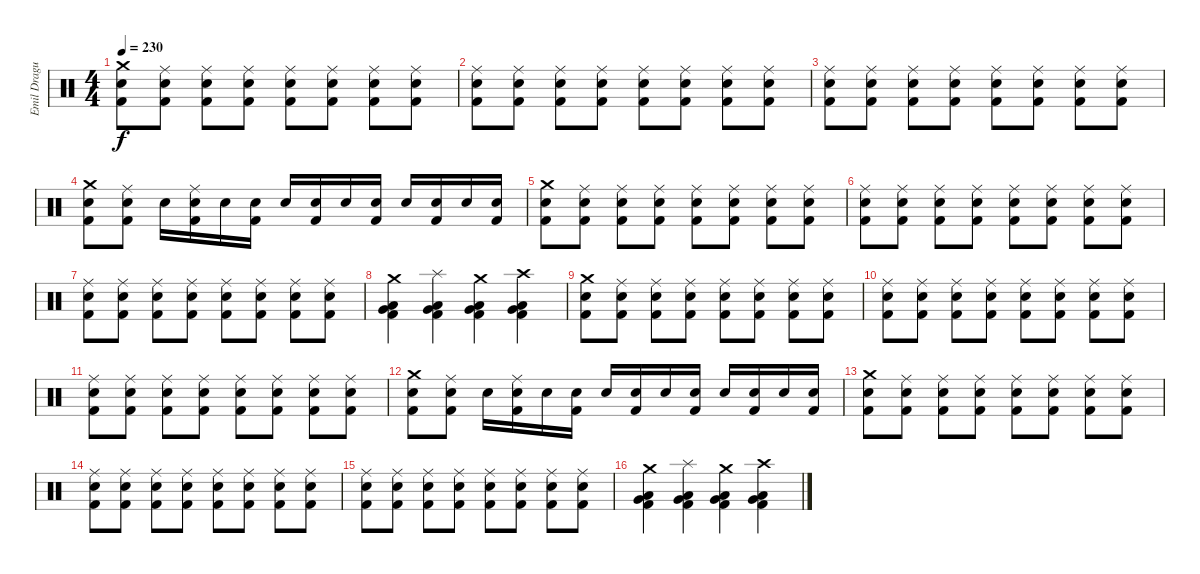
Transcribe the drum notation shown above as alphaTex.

\track ("Emil Dragutinovic" "Emil Dragu") {instrument percussion}
\staff {score}
\articulation defaults
\ts (4 4)
\tempo 230
\clef neutral
\ks c
("Crash medium (hit)" "Electric Snare (hit)" "Kick (hit) 2").8{dy f} ("Ride (middle)" "Electric Snare (hit)" "Kick (hit) 2").8 ("Ride (middle)" "Electric Snare (hit)" "Kick (hit) 2").8 ("Ride (middle)" "Electric Snare (hit)" "Kick (hit) 2").8 ("Ride (middle)" "Electric Snare (hit)" "Kick (hit) 2").8 ("Ride (middle)" "Electric Snare (hit)" "Kick (hit) 2").8 ("Ride (middle)" "Electric Snare (hit)" "Kick (hit) 2").8 ("Ride (middle)" "Electric Snare (hit)" "Kick (hit) 2").8 |
("Ride (middle)" "Electric Snare (hit)" "Kick (hit) 2").8 ("Ride (middle)" "Electric Snare (hit)" "Kick (hit) 2").8 ("Ride (middle)" "Electric Snare (hit)" "Kick (hit) 2").8 ("Ride (middle)" "Electric Snare (hit)" "Kick (hit) 2").8 ("Ride (middle)" "Electric Snare (hit)" "Kick (hit) 2").8 ("Ride (middle)" "Electric Snare (hit)" "Kick (hit) 2").8 ("Ride (middle)" "Electric Snare (hit)" "Kick (hit) 2").8 ("Ride (middle)" "Electric Snare (hit)" "Kick (hit) 2").8 |
("Ride (middle)" "Electric Snare (hit)" "Kick (hit) 2").8 ("Ride (middle)" "Electric Snare (hit)" "Kick (hit) 2").8 ("Ride (middle)" "Electric Snare (hit)" "Kick (hit) 2").8 ("Ride (middle)" "Electric Snare (hit)" "Kick (hit) 2").8 ("Ride (middle)" "Electric Snare (hit)" "Kick (hit) 2").8 ("Ride (middle)" "Electric Snare (hit)" "Kick (hit) 2").8 ("Ride (middle)" "Electric Snare (hit)" "Kick (hit) 2").8 ("Ride (middle)" "Electric Snare (hit)" "Kick (hit) 2").8 |
("Crash medium (hit)" "Electric Snare (hit)" "Kick (hit) 2").8 ("Ride (middle)" "Electric Snare (hit)" "Kick (hit) 2").8 "Electric Snare (hit)".16 ("Ride (middle)" "Electric Snare (hit)" "Kick (hit) 2").16 "Electric Snare (hit)".16 ("Electric Snare (hit)" "Kick (hit) 2").16 "Electric Snare (hit)".16 ("Electric Snare (hit)" "Kick (hit) 2").16 "Electric Snare (hit)".16 ("Electric Snare (hit)" "Kick (hit) 2").16 "Electric Snare (hit)".16 ("Electric Snare (hit)" "Kick (hit) 2").16 "Electric Snare (hit)".16 ("Electric Snare (hit)" "Kick (hit) 2").16 |
("Crash medium (hit)" "Electric Snare (hit)" "Kick (hit) 2").8 ("Ride (middle)" "Electric Snare (hit)" "Kick (hit) 2").8 ("Ride (middle)" "Electric Snare (hit)" "Kick (hit) 2").8 ("Ride (middle)" "Electric Snare (hit)" "Kick (hit) 2").8 ("Ride (middle)" "Electric Snare (hit)" "Kick (hit) 2").8 ("Ride (middle)" "Electric Snare (hit)" "Kick (hit) 2").8 ("Ride (middle)" "Electric Snare (hit)" "Kick (hit) 2").8 ("Ride (middle)" "Electric Snare (hit)" "Kick (hit) 2").8 |
("Ride (middle)" "Electric Snare (hit)" "Kick (hit) 2").8 ("Ride (middle)" "Electric Snare (hit)" "Kick (hit) 2").8 ("Ride (middle)" "Electric Snare (hit)" "Kick (hit) 2").8 ("Ride (middle)" "Electric Snare (hit)" "Kick (hit) 2").8 ("Ride (middle)" "Electric Snare (hit)" "Kick (hit) 2").8 ("Ride (middle)" "Electric Snare (hit)" "Kick (hit) 2").8 ("Ride (middle)" "Electric Snare (hit)" "Kick (hit) 2").8 ("Ride (middle)" "Electric Snare (hit)" "Kick (hit) 2").8 |
("Ride (middle)" "Electric Snare (hit)" "Kick (hit) 2").8 ("Ride (middle)" "Electric Snare (hit)" "Kick (hit) 2").8 ("Ride (middle)" "Electric Snare (hit)" "Kick (hit) 2").8 ("Ride (middle)" "Electric Snare (hit)" "Kick (hit) 2").8 ("Ride (middle)" "Electric Snare (hit)" "Kick (hit) 2").8 ("Ride (middle)" "Electric Snare (hit)" "Kick (hit) 2").8 ("Ride (middle)" "Electric Snare (hit)" "Kick (hit) 2").8 ("Ride (middle)" "Electric Snare (hit)" "Kick (hit) 2").8 |
("Crash medium (hit)" "Very Low Tom (hit)" "Low Tom (hit)" "Kick (hit) 2").4 ("Splash (hit)" "Very Low Tom (hit)" "Low Tom (hit)" "Kick (hit) 2").4 ("Crash medium (hit)" "Low Floor Tom (hit)" "Very Low Tom (hit)" "Kick (hit) 2").4 ("Crash high (hit)" "Low Floor Tom (hit)" "Very Low Tom (hit)" "Kick (hit) 2").4 |
("Crash medium (hit)" "Electric Snare (hit)" "Kick (hit) 2").8 ("Ride (middle)" "Electric Snare (hit)" "Kick (hit) 2").8 ("Ride (middle)" "Electric Snare (hit)" "Kick (hit) 2").8 ("Ride (middle)" "Electric Snare (hit)" "Kick (hit) 2").8 ("Ride (middle)" "Electric Snare (hit)" "Kick (hit) 2").8 ("Ride (middle)" "Electric Snare (hit)" "Kick (hit) 2").8 ("Ride (middle)" "Electric Snare (hit)" "Kick (hit) 2").8 ("Ride (middle)" "Electric Snare (hit)" "Kick (hit) 2").8 |
("Ride (middle)" "Electric Snare (hit)" "Kick (hit) 2").8 ("Ride (middle)" "Electric Snare (hit)" "Kick (hit) 2").8 ("Ride (middle)" "Electric Snare (hit)" "Kick (hit) 2").8 ("Ride (middle)" "Electric Snare (hit)" "Kick (hit) 2").8 ("Ride (middle)" "Electric Snare (hit)" "Kick (hit) 2").8 ("Ride (middle)" "Electric Snare (hit)" "Kick (hit) 2").8 ("Ride (middle)" "Electric Snare (hit)" "Kick (hit) 2").8 ("Ride (middle)" "Electric Snare (hit)" "Kick (hit) 2").8 |
("Ride (middle)" "Electric Snare (hit)" "Kick (hit) 2").8 ("Ride (middle)" "Electric Snare (hit)" "Kick (hit) 2").8 ("Ride (middle)" "Electric Snare (hit)" "Kick (hit) 2").8 ("Ride (middle)" "Electric Snare (hit)" "Kick (hit) 2").8 ("Ride (middle)" "Electric Snare (hit)" "Kick (hit) 2").8 ("Ride (middle)" "Electric Snare (hit)" "Kick (hit) 2").8 ("Ride (middle)" "Electric Snare (hit)" "Kick (hit) 2").8 ("Ride (middle)" "Electric Snare (hit)" "Kick (hit) 2").8 |
("Crash medium (hit)" "Electric Snare (hit)" "Kick (hit) 2").8 ("Ride (middle)" "Electric Snare (hit)" "Kick (hit) 2").8 "Electric Snare (hit)".16 ("Ride (middle)" "Electric Snare (hit)" "Kick (hit) 2").16 "Electric Snare (hit)".16 ("Electric Snare (hit)" "Kick (hit) 2").16 "Electric Snare (hit)".16 ("Electric Snare (hit)" "Kick (hit) 2").16 "Electric Snare (hit)".16 ("Electric Snare (hit)" "Kick (hit) 2").16 "Electric Snare (hit)".16 ("Electric Snare (hit)" "Kick (hit) 2").16 "Electric Snare (hit)".16 ("Electric Snare (hit)" "Kick (hit) 2").16 |
("Crash medium (hit)" "Electric Snare (hit)" "Kick (hit) 2").8 ("Ride (middle)" "Electric Snare (hit)" "Kick (hit) 2").8 ("Ride (middle)" "Electric Snare (hit)" "Kick (hit) 2").8 ("Ride (middle)" "Electric Snare (hit)" "Kick (hit) 2").8 ("Ride (middle)" "Electric Snare (hit)" "Kick (hit) 2").8 ("Ride (middle)" "Electric Snare (hit)" "Kick (hit) 2").8 ("Ride (middle)" "Electric Snare (hit)" "Kick (hit) 2").8 ("Ride (middle)" "Electric Snare (hit)" "Kick (hit) 2").8 |
("Ride (middle)" "Electric Snare (hit)" "Kick (hit) 2").8 ("Ride (middle)" "Electric Snare (hit)" "Kick (hit) 2").8 ("Ride (middle)" "Electric Snare (hit)" "Kick (hit) 2").8 ("Ride (middle)" "Electric Snare (hit)" "Kick (hit) 2").8 ("Ride (middle)" "Electric Snare (hit)" "Kick (hit) 2").8 ("Ride (middle)" "Electric Snare (hit)" "Kick (hit) 2").8 ("Ride (middle)" "Electric Snare (hit)" "Kick (hit) 2").8 ("Ride (middle)" "Electric Snare (hit)" "Kick (hit) 2").8 |
("Ride (middle)" "Electric Snare (hit)" "Kick (hit) 2").8 ("Ride (middle)" "Electric Snare (hit)" "Kick (hit) 2").8 ("Ride (middle)" "Electric Snare (hit)" "Kick (hit) 2").8 ("Ride (middle)" "Electric Snare (hit)" "Kick (hit) 2").8 ("Ride (middle)" "Electric Snare (hit)" "Kick (hit) 2").8 ("Ride (middle)" "Electric Snare (hit)" "Kick (hit) 2").8 ("Ride (middle)" "Electric Snare (hit)" "Kick (hit) 2").8 ("Ride (middle)" "Electric Snare (hit)" "Kick (hit) 2").8 |
("Crash medium (hit)" "Very Low Tom (hit)" "Low Tom (hit)" "Kick (hit) 2").4 ("Splash (hit)" "Very Low Tom (hit)" "Low Tom (hit)" "Kick (hit) 2").4 ("Crash medium (hit)" "Low Floor Tom (hit)" "Very Low Tom (hit)" "Kick (hit) 2").4 ("Crash high (hit)" "Low Floor Tom (hit)" "Very Low Tom (hit)" "Kick (hit) 2").4
